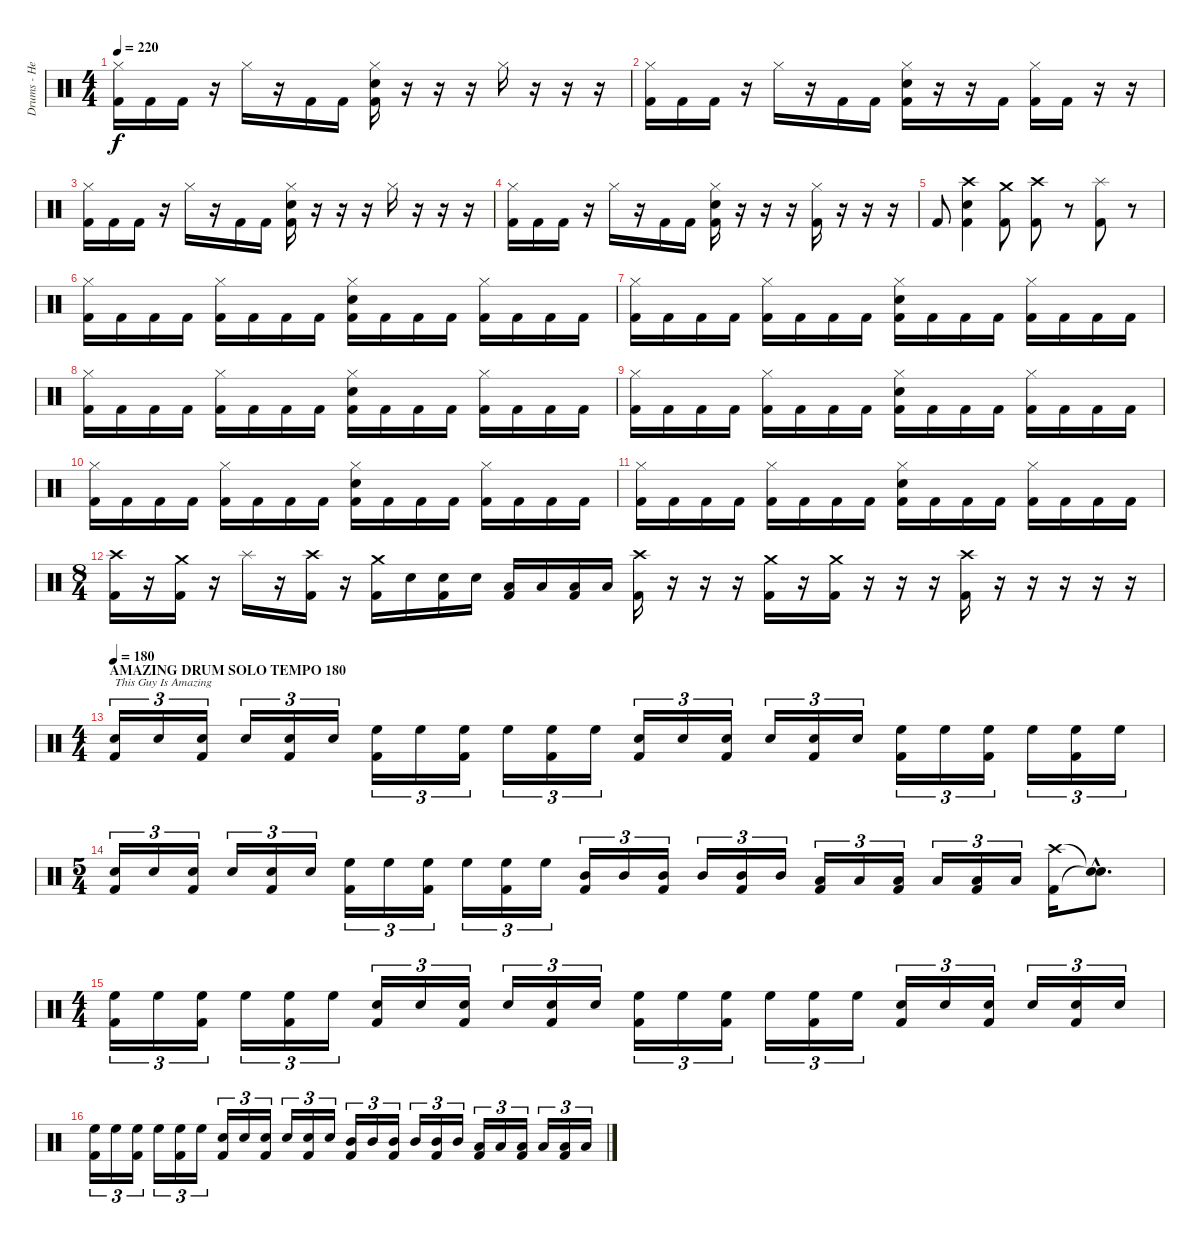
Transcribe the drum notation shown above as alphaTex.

\track ("Drums - Hellhammer" "Drums - He") {instrument percussion}
\staff {score}
\articulation defaults
\ts (4 4)
\tempo 220
\clef neutral
\ks c
("Hi-Hat (closed)" "Kick (hit) 2").16{dy f} "Kick (hit) 2".16 "Kick (hit) 2".16 r.16 "Hi-Hat (closed)".16 r.16 "Kick (hit) 2".16 "Kick (hit) 2".16 ("Hi-Hat (closed)" "Electric Snare (hit)" "Kick (hit) 2").16 r.16 r.16 r.16 "Hi-Hat (closed)".16 r.16 r.16 r.16 |
("Hi-Hat (closed)" "Kick (hit) 2").16 "Kick (hit) 2".16 "Kick (hit) 2".16 r.16 "Hi-Hat (closed)".16 r.16 "Kick (hit) 2".16 "Kick (hit) 2".16 ("Hi-Hat (closed)" "Electric Snare (hit)" "Kick (hit) 2").16 r.16 r.16 "Kick (hit) 2".16 ("Hi-Hat (closed)" "Kick (hit) 2").16 "Kick (hit) 2".16 r.16 r.16 |
("Hi-Hat (closed)" "Kick (hit) 2").16 "Kick (hit) 2".16 "Kick (hit) 2".16 r.16 "Hi-Hat (closed)".16 r.16 "Kick (hit) 2".16 "Kick (hit) 2".16 ("Hi-Hat (closed)" "Electric Snare (hit)" "Kick (hit) 2").16 r.16 r.16 r.16 "Hi-Hat (closed)".16 r.16 r.16 r.16 |
("Hi-Hat (closed)" "Kick (hit) 2").16 "Kick (hit) 2".16 "Kick (hit) 2".16 r.16 "Hi-Hat (closed)".16 r.16 "Kick (hit) 2".16 "Kick (hit) 2".16 ("Hi-Hat (closed)" "Electric Snare (hit)" "Kick (hit) 2").16 r.16 r.16 r.16 ("Hi-Hat (closed)" "Kick (hit) 2").16 r.16 r.16 r.16 |
"Kick (hit) 2".8 ("Crash high (hit)" "Electric Snare (hit)" "Kick (hit) 2").4 ("Crash medium (hit)" "Kick (hit) 2").8 ("Crash high (hit)" "Kick (hit) 2").8 r.8 ("Splash (hit)" "Kick (hit) 2").8 r.8 |
("Hi-Hat (closed)" "Kick (hit) 2").16 "Kick (hit) 2".16 "Kick (hit) 2".16 "Kick (hit) 2".16 ("Hi-Hat (closed)" "Kick (hit) 2").16 "Kick (hit) 2".16 "Kick (hit) 2".16 "Kick (hit) 2".16 ("Hi-Hat (closed)" "Electric Snare (hit)" "Kick (hit) 2").16 "Kick (hit) 2".16 "Kick (hit) 2".16 "Kick (hit) 2".16 ("Hi-Hat (closed)" "Kick (hit) 2").16 "Kick (hit) 2".16 "Kick (hit) 2".16 "Kick (hit) 2".16 |
("Hi-Hat (closed)" "Kick (hit) 2").16 "Kick (hit) 2".16 "Kick (hit) 2".16 "Kick (hit) 2".16 ("Hi-Hat (closed)" "Kick (hit) 2").16 "Kick (hit) 2".16 "Kick (hit) 2".16 "Kick (hit) 2".16 ("Hi-Hat (closed)" "Electric Snare (hit)" "Kick (hit) 2").16 "Kick (hit) 2".16 "Kick (hit) 2".16 "Kick (hit) 2".16 ("Hi-Hat (closed)" "Kick (hit) 2").16 "Kick (hit) 2".16 "Kick (hit) 2".16 "Kick (hit) 2".16 |
("Hi-Hat (closed)" "Kick (hit) 2").16 "Kick (hit) 2".16 "Kick (hit) 2".16 "Kick (hit) 2".16 ("Hi-Hat (closed)" "Kick (hit) 2").16 "Kick (hit) 2".16 "Kick (hit) 2".16 "Kick (hit) 2".16 ("Hi-Hat (closed)" "Electric Snare (hit)" "Kick (hit) 2").16 "Kick (hit) 2".16 "Kick (hit) 2".16 "Kick (hit) 2".16 ("Hi-Hat (closed)" "Kick (hit) 2").16 "Kick (hit) 2".16 "Kick (hit) 2".16 "Kick (hit) 2".16 |
("Hi-Hat (closed)" "Kick (hit) 2").16 "Kick (hit) 2".16 "Kick (hit) 2".16 "Kick (hit) 2".16 ("Hi-Hat (closed)" "Kick (hit) 2").16 "Kick (hit) 2".16 "Kick (hit) 2".16 "Kick (hit) 2".16 ("Hi-Hat (closed)" "Electric Snare (hit)" "Kick (hit) 2").16 "Kick (hit) 2".16 "Kick (hit) 2".16 "Kick (hit) 2".16 ("Hi-Hat (closed)" "Kick (hit) 2").16 "Kick (hit) 2".16 "Kick (hit) 2".16 "Kick (hit) 2".16 |
("Hi-Hat (closed)" "Kick (hit) 2").16 "Kick (hit) 2".16 "Kick (hit) 2".16 "Kick (hit) 2".16 ("Hi-Hat (closed)" "Kick (hit) 2").16 "Kick (hit) 2".16 "Kick (hit) 2".16 "Kick (hit) 2".16 ("Hi-Hat (closed)" "Electric Snare (hit)" "Kick (hit) 2").16 "Kick (hit) 2".16 "Kick (hit) 2".16 "Kick (hit) 2".16 ("Hi-Hat (closed)" "Kick (hit) 2").16 "Kick (hit) 2".16 "Kick (hit) 2".16 "Kick (hit) 2".16 |
("Hi-Hat (closed)" "Kick (hit) 2").16 "Kick (hit) 2".16 "Kick (hit) 2".16 "Kick (hit) 2".16 ("Hi-Hat (closed)" "Kick (hit) 2").16 "Kick (hit) 2".16 "Kick (hit) 2".16 "Kick (hit) 2".16 ("Hi-Hat (closed)" "Electric Snare (hit)" "Kick (hit) 2").16 "Kick (hit) 2".16 "Kick (hit) 2".16 "Kick (hit) 2".16 ("Hi-Hat (closed)" "Kick (hit) 2").16 "Kick (hit) 2".16 "Kick (hit) 2".16 "Kick (hit) 2".16 |
\ts (8 4)
("Crash high (hit)" "Kick (hit) 2").16 r.16 ("Crash medium (hit)" "Kick (hit) 2").16 r.16 "Splash (hit)".16 r.16 ("Crash high (hit)" "Kick (hit) 2").16 r.16 ("Crash medium (hit)" "Kick (hit) 2").16 "Electric Snare (hit)".16 ("Electric Snare (hit)" "Kick (hit) 2").16 "Electric Snare (hit)".16 ("Low Tom (hit)" "Kick (hit) 2").16 "Low Tom (hit)".16 ("Low Tom (hit)" "Kick (hit) 2").16 "Low Tom (hit)".16 ("Crash high (hit)" "Kick (hit) 2").16 r.16 r.16 r.16 ("Crash medium (hit)" "Kick (hit) 2").16 r.16 ("Crash medium (hit)" "Kick (hit) 2").16 r.16 r.16 r.16 ("Crash high (hit)" "Kick (hit) 2").16 r.16 r.16 r.16 r.16 r.16 |
\ts (4 4)
\section ("" "AMAZING DRUM SOLO TEMPO 180")
\tempo 180
("Electric Snare (hit)" "Kick (hit) 2").16{tu (3 2) txt "This Guy Is Amazing"} "Electric Snare (hit)".16{tu (3 2)} ("Electric Snare (hit)" "Kick (hit) 2").16{tu (3 2)} "Electric Snare (hit)".16{tu (3 2)} ("Electric Snare (hit)" "Kick (hit) 2").16{tu (3 2)} "Electric Snare (hit)".16{tu (3 2)} ("High Floor Tom (hit)" "Kick (hit) 2").16{tu (3 2)} "High Floor Tom (hit)".16{tu (3 2)} ("High Floor Tom (hit)" "Kick (hit) 2").16{tu (3 2)} "High Floor Tom (hit)".16{tu (3 2)} ("High Floor Tom (hit)" "Kick (hit) 2").16{tu (3 2)} "High Floor Tom (hit)".16{tu (3 2)} ("Electric Snare (hit)" "Kick (hit) 2").16{tu (3 2)} "Electric Snare (hit)".16{tu (3 2)} ("Electric Snare (hit)" "Kick (hit) 2").16{tu (3 2)} "Electric Snare (hit)".16{tu (3 2)} ("Electric Snare (hit)" "Kick (hit) 2").16{tu (3 2)} "Electric Snare (hit)".16{tu (3 2)} ("High Floor Tom (hit)" "Kick (hit) 2").16{tu (3 2)} "High Floor Tom (hit)".16{tu (3 2)} ("High Floor Tom (hit)" "Kick (hit) 2").16{tu (3 2)} "High Floor Tom (hit)".16{tu (3 2)} ("High Floor Tom (hit)" "Kick (hit) 2").16{tu (3 2)} "High Floor Tom (hit)".16{tu (3 2)} |
\ts (5 4)
("Electric Snare (hit)" "Kick (hit) 2").16{tu (3 2)} "Electric Snare (hit)".16{tu (3 2)} ("Electric Snare (hit)" "Kick (hit) 2").16{tu (3 2)} "Electric Snare (hit)".16{tu (3 2)} ("Electric Snare (hit)" "Kick (hit) 2").16{tu (3 2)} "Electric Snare (hit)".16{tu (3 2)} ("High Floor Tom (hit)" "Kick (hit) 2").16{tu (3 2)} "High Floor Tom (hit)".16{tu (3 2)} ("High Floor Tom (hit)" "Kick (hit) 2").16{tu (3 2)} "High Floor Tom (hit)".16{tu (3 2)} ("High Floor Tom (hit)" "Kick (hit) 2").16{tu (3 2)} "High Floor Tom (hit)".16{tu (3 2)} ("Mid Tom (hit)" "Kick (hit) 2").16{tu (3 2)} "Mid Tom (hit)".16{tu (3 2)} ("Mid Tom (hit)" "Kick (hit) 2").16{tu (3 2)} "Mid Tom (hit)".16{tu (3 2)} ("Mid Tom (hit)" "Kick (hit) 2").16{tu (3 2)} "Mid Tom (hit)".16{tu (3 2)} ("Low Tom (hit)" "Kick (hit) 2").16{tu (3 2)} "Low Tom (hit)".16{tu (3 2)} ("Low Tom (hit)" "Kick (hit) 2").16{tu (3 2)} "Low Tom (hit)".16{tu (3 2)} ("Low Tom (hit)" "Kick (hit) 2").16{tu (3 2)} "Low Tom (hit)".16{tu (3 2)} ("Crash high (hit)" "Kick (hit) 2").16 ("Snare (hit)"{hac t} "Snare (hit)"{hac t}).8{d} |
\ts (4 4)
("High Floor Tom (hit)" "Kick (hit) 2").16{tu (3 2)} "High Floor Tom (hit)".16{tu (3 2)} ("High Floor Tom (hit)" "Kick (hit) 2").16{tu (3 2)} "High Floor Tom (hit)".16{tu (3 2)} ("High Floor Tom (hit)" "Kick (hit) 2").16{tu (3 2)} "High Floor Tom (hit)".16{tu (3 2)} ("Electric Snare (hit)" "Kick (hit) 2").16{tu (3 2)} "Electric Snare (hit)".16{tu (3 2)} ("Electric Snare (hit)" "Kick (hit) 2").16{tu (3 2)} "Electric Snare (hit)".16{tu (3 2)} ("Electric Snare (hit)" "Kick (hit) 2").16{tu (3 2)} "Electric Snare (hit)".16{tu (3 2)} ("High Floor Tom (hit)" "Kick (hit) 2").16{tu (3 2)} "High Floor Tom (hit)".16{tu (3 2)} ("High Floor Tom (hit)" "Kick (hit) 2").16{tu (3 2)} "High Floor Tom (hit)".16{tu (3 2)} ("High Floor Tom (hit)" "Kick (hit) 2").16{tu (3 2)} "High Floor Tom (hit)".16{tu (3 2)} ("Electric Snare (hit)" "Kick (hit) 2").16{tu (3 2)} "Electric Snare (hit)".16{tu (3 2)} ("Electric Snare (hit)" "Kick (hit) 2").16{tu (3 2)} "Electric Snare (hit)".16{tu (3 2)} ("Electric Snare (hit)" "Kick (hit) 2").16{tu (3 2)} "Electric Snare (hit)".16{tu (3 2)} |
("High Floor Tom (hit)" "Kick (hit) 2").16{tu (3 2)} "High Floor Tom (hit)".16{tu (3 2)} ("High Floor Tom (hit)" "Kick (hit) 2").16{tu (3 2)} "High Floor Tom (hit)".16{tu (3 2)} ("High Floor Tom (hit)" "Kick (hit) 2").16{tu (3 2)} "High Floor Tom (hit)".16{tu (3 2)} ("Electric Snare (hit)" "Kick (hit) 2").16{tu (3 2)} "Electric Snare (hit)".16{tu (3 2)} ("Electric Snare (hit)" "Kick (hit) 2").16{tu (3 2)} "Electric Snare (hit)".16{tu (3 2)} ("Electric Snare (hit)" "Kick (hit) 2").16{tu (3 2)} "Electric Snare (hit)".16{tu (3 2)} ("Mid Tom (hit)" "Kick (hit) 2").16{tu (3 2)} "Mid Tom (hit)".16{tu (3 2)} ("Mid Tom (hit)" "Kick (hit) 2").16{tu (3 2)} "Mid Tom (hit)".16{tu (3 2)} ("Mid Tom (hit)" "Kick (hit) 2").16{tu (3 2)} "Mid Tom (hit)".16{tu (3 2)} ("Low Tom (hit)" "Kick (hit) 2").16{tu (3 2)} "Low Tom (hit)".16{tu (3 2)} ("Low Tom (hit)" "Kick (hit) 2").16{tu (3 2)} "Low Tom (hit)".16{tu (3 2)} ("Low Tom (hit)" "Kick (hit) 2").16{tu (3 2)} "Low Tom (hit)".16{tu (3 2)}
